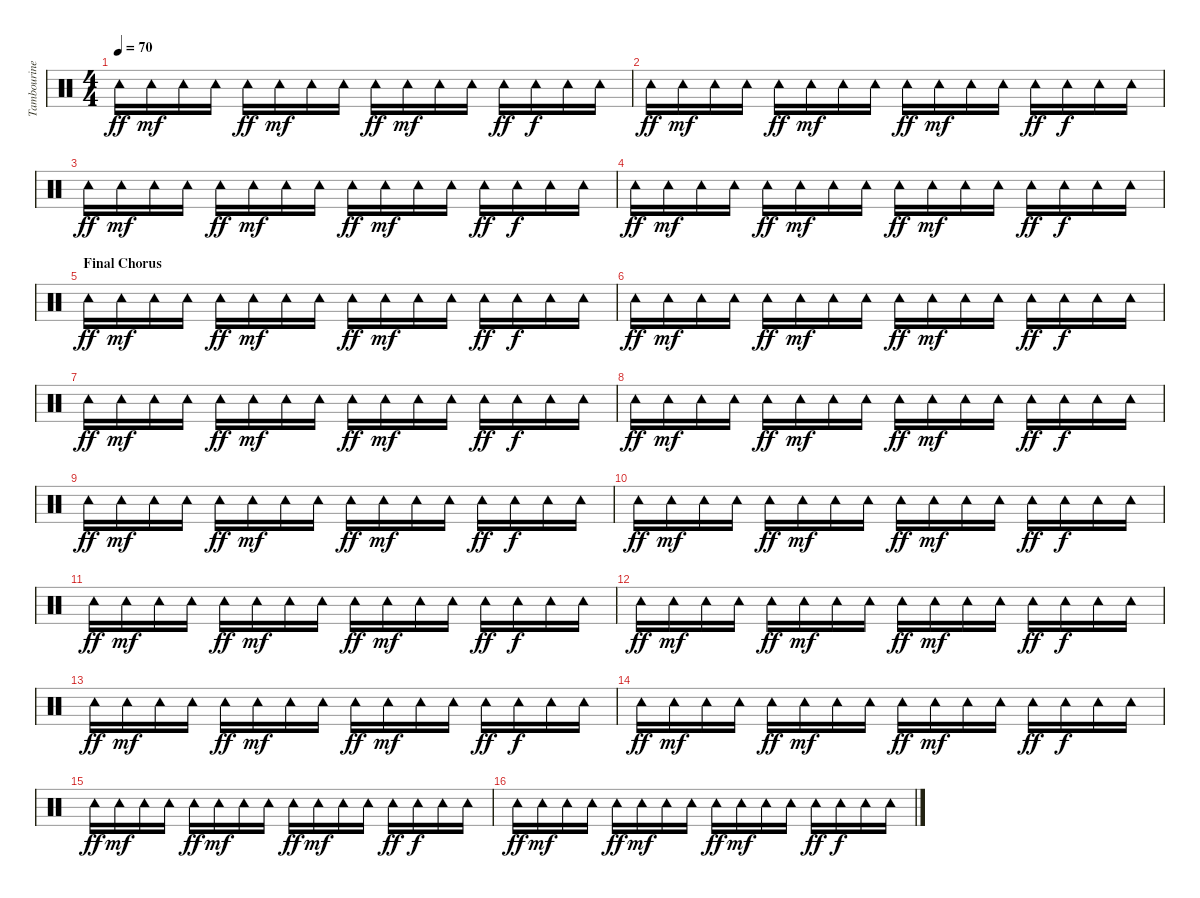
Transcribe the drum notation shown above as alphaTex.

\track ("Tambourine" "Tambourine") {instrument percussion}
\staff {score}
\articulation defaults
\ts (4 4)
\tempo 70
\clef neutral
\ks c "Tambourine (hit)".16{dy ff} "Tambourine (hit)".16{dy mf} "Tambourine (hit)".16 "Tambourine (hit)".16 "Tambourine (hit)".16{dy ff} "Tambourine (hit)".16{dy mf} "Tambourine (hit)".16 "Tambourine (hit)".16 "Tambourine (hit)".16{dy ff} "Tambourine (hit)".16{dy mf} "Tambourine (hit)".16 "Tambourine (hit)".16 "Tambourine (hit)".16{dy ff} "Tambourine (hit)".16{dy f} "Tambourine (hit)".16 "Tambourine (hit)".16
|
"Tambourine (hit)".16{dy ff} "Tambourine (hit)".16{dy mf} "Tambourine (hit)".16 "Tambourine (hit)".16 "Tambourine (hit)".16{dy ff} "Tambourine (hit)".16{dy mf} "Tambourine (hit)".16 "Tambourine (hit)".16 "Tambourine (hit)".16{dy ff} "Tambourine (hit)".16{dy mf} "Tambourine (hit)".16 "Tambourine (hit)".16 "Tambourine (hit)".16{dy ff} "Tambourine (hit)".16{dy f} "Tambourine (hit)".16 "Tambourine (hit)".16 |
"Tambourine (hit)".16{dy ff} "Tambourine (hit)".16{dy mf} "Tambourine (hit)".16 "Tambourine (hit)".16 "Tambourine (hit)".16{dy ff} "Tambourine (hit)".16{dy mf} "Tambourine (hit)".16 "Tambourine (hit)".16 "Tambourine (hit)".16{dy ff} "Tambourine (hit)".16{dy mf} "Tambourine (hit)".16 "Tambourine (hit)".16 "Tambourine (hit)".16{dy ff} "Tambourine (hit)".16{dy f} "Tambourine (hit)".16 "Tambourine (hit)".16 |
"Tambourine (hit)".16{dy ff} "Tambourine (hit)".16{dy mf} "Tambourine (hit)".16 "Tambourine (hit)".16 "Tambourine (hit)".16{dy ff} "Tambourine (hit)".16{dy mf} "Tambourine (hit)".16 "Tambourine (hit)".16 "Tambourine (hit)".16{dy ff} "Tambourine (hit)".16{dy mf} "Tambourine (hit)".16 "Tambourine (hit)".16 "Tambourine (hit)".16{dy ff} "Tambourine (hit)".16{dy f} "Tambourine (hit)".16 "Tambourine (hit)".16 |
\section ("" "Final Chorus")
"Tambourine (hit)".16{dy ff} "Tambourine (hit)".16{dy mf} "Tambourine (hit)".16 "Tambourine (hit)".16 "Tambourine (hit)".16{dy ff} "Tambourine (hit)".16{dy mf} "Tambourine (hit)".16 "Tambourine (hit)".16 "Tambourine (hit)".16{dy ff} "Tambourine (hit)".16{dy mf} "Tambourine (hit)".16 "Tambourine (hit)".16 "Tambourine (hit)".16{dy ff} "Tambourine (hit)".16{dy f} "Tambourine (hit)".16 "Tambourine (hit)".16 |
"Tambourine (hit)".16{dy ff} "Tambourine (hit)".16{dy mf} "Tambourine (hit)".16 "Tambourine (hit)".16 "Tambourine (hit)".16{dy ff} "Tambourine (hit)".16{dy mf} "Tambourine (hit)".16 "Tambourine (hit)".16 "Tambourine (hit)".16{dy ff} "Tambourine (hit)".16{dy mf} "Tambourine (hit)".16 "Tambourine (hit)".16 "Tambourine (hit)".16{dy ff} "Tambourine (hit)".16{dy f} "Tambourine (hit)".16 "Tambourine (hit)".16 |
"Tambourine (hit)".16{dy ff} "Tambourine (hit)".16{dy mf} "Tambourine (hit)".16 "Tambourine (hit)".16 "Tambourine (hit)".16{dy ff} "Tambourine (hit)".16{dy mf} "Tambourine (hit)".16 "Tambourine (hit)".16 "Tambourine (hit)".16{dy ff} "Tambourine (hit)".16{dy mf} "Tambourine (hit)".16 "Tambourine (hit)".16 "Tambourine (hit)".16{dy ff} "Tambourine (hit)".16{dy f} "Tambourine (hit)".16 "Tambourine (hit)".16 |
"Tambourine (hit)".16{dy ff} "Tambourine (hit)".16{dy mf} "Tambourine (hit)".16 "Tambourine (hit)".16 "Tambourine (hit)".16{dy ff} "Tambourine (hit)".16{dy mf} "Tambourine (hit)".16 "Tambourine (hit)".16 "Tambourine (hit)".16{dy ff} "Tambourine (hit)".16{dy mf} "Tambourine (hit)".16 "Tambourine (hit)".16 "Tambourine (hit)".16{dy ff} "Tambourine (hit)".16{dy f} "Tambourine (hit)".16 "Tambourine (hit)".16 |
"Tambourine (hit)".16{dy ff} "Tambourine (hit)".16{dy mf} "Tambourine (hit)".16 "Tambourine (hit)".16 "Tambourine (hit)".16{dy ff} "Tambourine (hit)".16{dy mf} "Tambourine (hit)".16 "Tambourine (hit)".16 "Tambourine (hit)".16{dy ff} "Tambourine (hit)".16{dy mf} "Tambourine (hit)".16 "Tambourine (hit)".16 "Tambourine (hit)".16{dy ff} "Tambourine (hit)".16{dy f} "Tambourine (hit)".16 "Tambourine (hit)".16 |
"Tambourine (hit)".16{dy ff} "Tambourine (hit)".16{dy mf} "Tambourine (hit)".16 "Tambourine (hit)".16 "Tambourine (hit)".16{dy ff} "Tambourine (hit)".16{dy mf} "Tambourine (hit)".16 "Tambourine (hit)".16 "Tambourine (hit)".16{dy ff} "Tambourine (hit)".16{dy mf} "Tambourine (hit)".16 "Tambourine (hit)".16 "Tambourine (hit)".16{dy ff} "Tambourine (hit)".16{dy f} "Tambourine (hit)".16 "Tambourine (hit)".16 |
"Tambourine (hit)".16{dy ff} "Tambourine (hit)".16{dy mf} "Tambourine (hit)".16 "Tambourine (hit)".16 "Tambourine (hit)".16{dy ff} "Tambourine (hit)".16{dy mf} "Tambourine (hit)".16 "Tambourine (hit)".16 "Tambourine (hit)".16{dy ff} "Tambourine (hit)".16{dy mf} "Tambourine (hit)".16 "Tambourine (hit)".16 "Tambourine (hit)".16{dy ff} "Tambourine (hit)".16{dy f} "Tambourine (hit)".16 "Tambourine (hit)".16 |
"Tambourine (hit)".16{dy ff} "Tambourine (hit)".16{dy mf} "Tambourine (hit)".16 "Tambourine (hit)".16 "Tambourine (hit)".16{dy ff} "Tambourine (hit)".16{dy mf} "Tambourine (hit)".16 "Tambourine (hit)".16 "Tambourine (hit)".16{dy ff} "Tambourine (hit)".16{dy mf} "Tambourine (hit)".16 "Tambourine (hit)".16 "Tambourine (hit)".16{dy ff} "Tambourine (hit)".16{dy f} "Tambourine (hit)".16 "Tambourine (hit)".16 |
"Tambourine (hit)".16{dy ff} "Tambourine (hit)".16{dy mf} "Tambourine (hit)".16 "Tambourine (hit)".16 "Tambourine (hit)".16{dy ff} "Tambourine (hit)".16{dy mf} "Tambourine (hit)".16 "Tambourine (hit)".16 "Tambourine (hit)".16{dy ff} "Tambourine (hit)".16{dy mf} "Tambourine (hit)".16 "Tambourine (hit)".16 "Tambourine (hit)".16{dy ff} "Tambourine (hit)".16{dy f} "Tambourine (hit)".16 "Tambourine (hit)".16 |
"Tambourine (hit)".16{dy ff} "Tambourine (hit)".16{dy mf} "Tambourine (hit)".16 "Tambourine (hit)".16 "Tambourine (hit)".16{dy ff} "Tambourine (hit)".16{dy mf} "Tambourine (hit)".16 "Tambourine (hit)".16 "Tambourine (hit)".16{dy ff} "Tambourine (hit)".16{dy mf} "Tambourine (hit)".16 "Tambourine (hit)".16 "Tambourine (hit)".16{dy ff} "Tambourine (hit)".16{dy f} "Tambourine (hit)".16 "Tambourine (hit)".16 |
"Tambourine (hit)".16{dy ff} "Tambourine (hit)".16{dy mf} "Tambourine (hit)".16 "Tambourine (hit)".16 "Tambourine (hit)".16{dy ff} "Tambourine (hit)".16{dy mf} "Tambourine (hit)".16 "Tambourine (hit)".16 "Tambourine (hit)".16{dy ff} "Tambourine (hit)".16{dy mf} "Tambourine (hit)".16 "Tambourine (hit)".16 "Tambourine (hit)".16{dy ff} "Tambourine (hit)".16{dy f} "Tambourine (hit)".16 "Tambourine (hit)".16 |
"Tambourine (hit)".16{dy ff} "Tambourine (hit)".16{dy mf} "Tambourine (hit)".16 "Tambourine (hit)".16 "Tambourine (hit)".16{dy ff} "Tambourine (hit)".16{dy mf} "Tambourine (hit)".16 "Tambourine (hit)".16 "Tambourine (hit)".16{dy ff} "Tambourine (hit)".16{dy mf} "Tambourine (hit)".16 "Tambourine (hit)".16 "Tambourine (hit)".16{dy ff} "Tambourine (hit)".16{dy f} "Tambourine (hit)".16 "Tambourine (hit)".16
